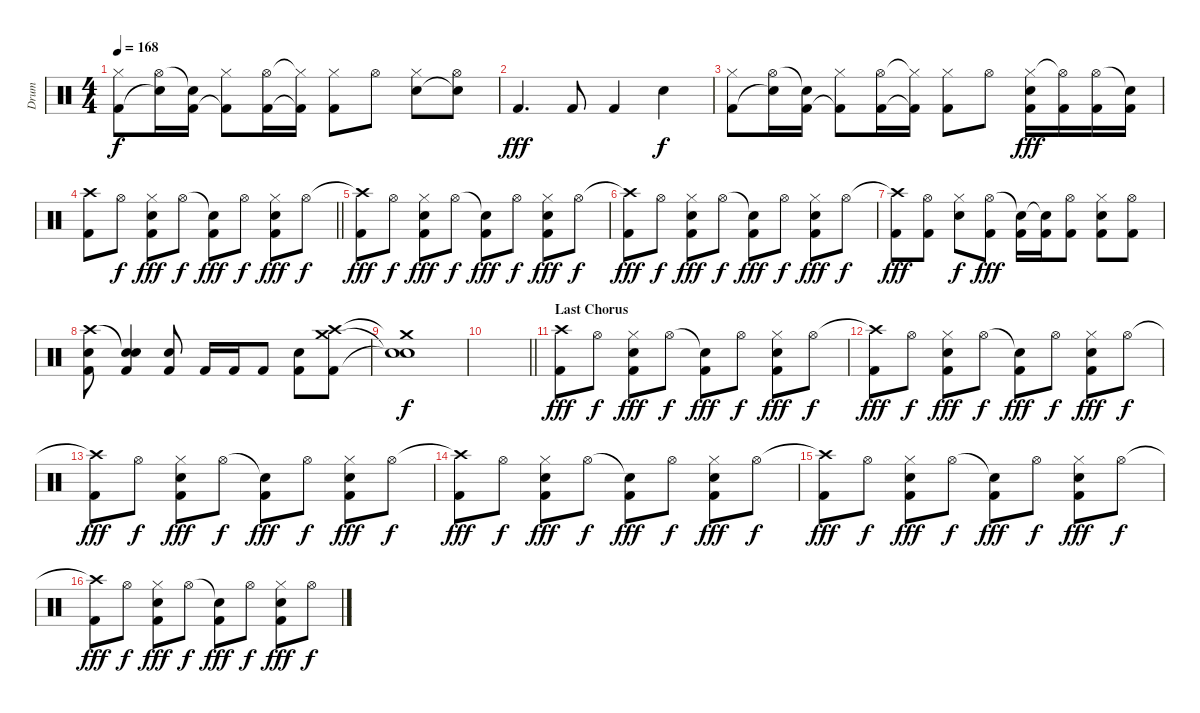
\track ("Drum" "Drum") {instrument percussion}
\staff {score}
\articulation defaults
\ts (4 4)
\tempo 168
\clef neutral
\ks c
("Hi-Hat (closed)" "Kick (hit) 2").8{dy f} ("Hi-Hat (open)" "Snare (hit)"{t}).16 ("Snare (hit)"{t} "Kick (hit) 2").16 ("Hi-Hat (closed)" "Kick (hit) 2"{t}).8 ("Hi-Hat (open)" "Kick (hit) 2").16 ("Hi-Hat (closed)"{t} "Kick (hit) 2"{t}).16 ("Hi-Hat (closed)" "Kick (hit) 2").8 "Hi-Hat (open)".8 ("Hi-Hat (closed)" "Snare (hit) 2").8 ("Hi-Hat (open)" "Snare (hit)"{t}).8 |
"Kick (hit) 2".4{d dy fff} "Kick (hit) 2".8 "Kick (hit) 2".4 "Snare (hit) 2".4{dy f} |
("Hi-Hat (closed)" "Kick (hit) 2").8 ("Hi-Hat (open)" "Snare (hit)"{t}).16 ("Snare (hit)"{t} "Kick (hit) 2").16 ("Hi-Hat (closed)" "Kick (hit) 2"{t}).8 ("Hi-Hat (open)" "Kick (hit) 2").16 ("Hi-Hat (closed)"{t} "Kick (hit) 2"{t}).16 ("Hi-Hat (closed)" "Kick (hit) 2").8 "Hi-Hat (open)".8 ("Hi-Hat (closed)" "Snare (hit) 2" "Kick (hit) 2").16{dy fff} ("Hi-Hat (open)"{t} "Kick (hit) 2").16 ("Hi-Hat (open)" "Kick (hit) 2").16 ("Snare (hit)"{t} "Kick (hit) 2").16 |
\barLineRight lightlight
("Crash high (hit)" "Kick (hit) 2").8 "Hi-Hat (open)".8{dy f} ("Hi-Hat (closed)" "Snare (hit) 2" "Kick (hit) 2").8{dy fff} "Hi-Hat (open)".8{dy f} ("Snare (hit)"{t} "Kick (hit) 2").8{dy fff} "Hi-Hat (open)".8{dy f} ("Hi-Hat (closed)" "Snare (hit) 2" "Kick (hit) 2").8{dy fff} "Hi-Hat (open)".8{dy f} |
("Crash high (hit)"{t} "Kick (hit) 2").8{dy fff} "Hi-Hat (open)".8{dy f} ("Hi-Hat (closed)" "Snare (hit) 2" "Kick (hit) 2").8{dy fff} "Hi-Hat (open)".8{dy f} ("Snare (hit)"{t} "Kick (hit) 2").8{dy fff} "Hi-Hat (open)".8{dy f} ("Hi-Hat (closed)" "Snare (hit) 2" "Kick (hit) 2").8{dy fff} "Hi-Hat (open)".8{dy f} |
("Crash high (hit)"{t} "Kick (hit) 2").8{dy fff} "Hi-Hat (open)".8{dy f} ("Hi-Hat (closed)" "Snare (hit) 2" "Kick (hit) 2").8{dy fff} "Hi-Hat (open)".8{dy f} ("Snare (hit)"{t} "Kick (hit) 2").8{dy fff} "Hi-Hat (open)".8{dy f} ("Hi-Hat (closed)" "Snare (hit) 2" "Kick (hit) 2").8{dy fff} "Hi-Hat (open)".8{dy f} |
("Crash high (hit)"{t} "Kick (hit) 2").8{dy fff} ("Hi-Hat (open)" "Kick (hit) 2").8 ("Hi-Hat (closed)" "Snare (hit) 2").8{dy f} ("Hi-Hat (open)" "Kick (hit) 2").8{dy fff} ("Snare (hit)"{t} "Kick (hit) 2").16 ("Snare (hit)"{t} "Kick (hit) 2").16 ("Hi-Hat (open)" "Kick (hit) 2").8 ("Hi-Hat (closed)" "Snare (hit) 2" "Kick (hit) 2").8 ("Hi-Hat (open)" "Kick (hit) 2").8 |
("Crash high (hit)" "Snare (hit) 2" "Kick (hit) 2").8 ("Snare (hit)"{t} "Snare (hit) 2" "Kick (hit) 2").4 ("Snare (hit) 2" "Kick (hit) 2").8 "Kick (hit) 2".16 "Kick (hit) 2".16 "Kick (hit) 2".8 ("Snare (hit) 2" "Kick (hit) 2").8 ("Crash high (hit)" "Crash medium (hit)" "Kick (hit) 2").8 |
("Crash medium (hit)"{t} "Snare (hit)"{t} "Snare (hit)"{t}).1{dy f} |
\barLineRight lightlight
|
\section ("" "Last Chorus")
("Crash high (hit)" "Kick (hit) 2").8{dy fff} "Hi-Hat (open)".8{dy f} ("Hi-Hat (closed)" "Snare (hit) 2" "Kick (hit) 2").8{dy fff} "Hi-Hat (open)".8{dy f} ("Snare (hit)"{t} "Kick (hit) 2").8{dy fff} "Hi-Hat (open)".8{dy f} ("Hi-Hat (closed)" "Snare (hit) 2" "Kick (hit) 2").8{dy fff} "Hi-Hat (open)".8{dy f} |
("Crash high (hit)"{t} "Kick (hit) 2").8{dy fff} "Hi-Hat (open)".8{dy f} ("Hi-Hat (closed)" "Snare (hit) 2" "Kick (hit) 2").8{dy fff} "Hi-Hat (open)".8{dy f} ("Snare (hit)"{t} "Kick (hit) 2").8{dy fff} "Hi-Hat (open)".8{dy f} ("Hi-Hat (closed)" "Snare (hit) 2" "Kick (hit) 2").8{dy fff} "Hi-Hat (open)".8{dy f} |
("Crash high (hit)"{t} "Kick (hit) 2").8{dy fff} "Hi-Hat (open)".8{dy f} ("Hi-Hat (closed)" "Snare (hit) 2" "Kick (hit) 2").8{dy fff} "Hi-Hat (open)".8{dy f} ("Snare (hit)"{t} "Kick (hit) 2").8{dy fff} "Hi-Hat (open)".8{dy f} ("Hi-Hat (closed)" "Snare (hit) 2" "Kick (hit) 2").8{dy fff} "Hi-Hat (open)".8{dy f} |
("Crash high (hit)"{t} "Kick (hit) 2").8{dy fff} "Hi-Hat (open)".8{dy f} ("Hi-Hat (closed)" "Snare (hit) 2" "Kick (hit) 2").8{dy fff} "Hi-Hat (open)".8{dy f} ("Snare (hit)"{t} "Kick (hit) 2").8{dy fff} "Hi-Hat (open)".8{dy f} ("Hi-Hat (closed)" "Snare (hit) 2" "Kick (hit) 2").8{dy fff} "Hi-Hat (open)".8{dy f} |
("Crash high (hit)"{t} "Kick (hit) 2").8{dy fff} "Hi-Hat (open)".8{dy f} ("Hi-Hat (closed)" "Snare (hit) 2" "Kick (hit) 2").8{dy fff} "Hi-Hat (open)".8{dy f} ("Snare (hit)"{t} "Kick (hit) 2").8{dy fff} "Hi-Hat (open)".8{dy f} ("Hi-Hat (closed)" "Snare (hit) 2" "Kick (hit) 2").8{dy fff} "Hi-Hat (open)".8{dy f} |
("Crash high (hit)"{t} "Kick (hit) 2").8{dy fff} "Hi-Hat (open)".8{dy f} ("Hi-Hat (closed)" "Snare (hit) 2" "Kick (hit) 2").8{dy fff} "Hi-Hat (open)".8{dy f} ("Snare (hit)"{t} "Kick (hit) 2").8{dy fff} "Hi-Hat (open)".8{dy f} ("Hi-Hat (closed)" "Snare (hit) 2" "Kick (hit) 2").8{dy fff} "Hi-Hat (open)".8{dy f}
